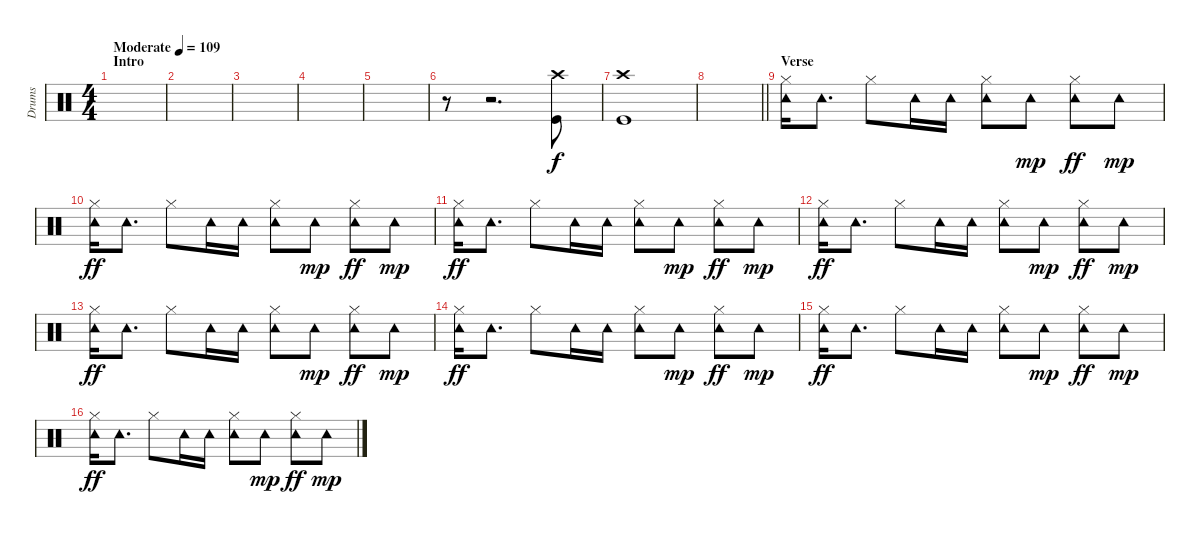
\track ("Drums" "Drums") {instrument percussion}
\staff {score}
\articulation defaults
\ts (4 4)
\section ("" "Intro")
\tempo (109 "Moderate")
\clef neutral
\ks c
|
|
|
|
|
r.8 r.2{d} ("Crash high (hit)" "Kick (hit)").8 |
("Crash high (hit)" "Kick (hit)").1 |
\barLineRight lightlight
|
\section ("" "Verse")
("Tambourine (hit)" "Hi-Hat (closed)").16 "Tambourine (hit)".8{d} "Hi-Hat (closed)".8 "Tambourine (hit)".16 "Tambourine (hit)".16 ("Tambourine (hit)" "Hi-Hat (closed)").8 "Tambourine (hit)".8{dy mp} ("Tambourine (hit)" "Hi-Hat (closed)").8{dy ff} "Tambourine (hit)".8{dy mp} |
("Tambourine (hit)" "Hi-Hat (closed)").16{dy ff} "Tambourine (hit)".8{d} "Hi-Hat (closed)".8 "Tambourine (hit)".16 "Tambourine (hit)".16 ("Tambourine (hit)" "Hi-Hat (closed)").8 "Tambourine (hit)".8{dy mp} ("Tambourine (hit)" "Hi-Hat (closed)").8{dy ff} "Tambourine (hit)".8{dy mp} |
("Tambourine (hit)" "Hi-Hat (closed)").16{dy ff} "Tambourine (hit)".8{d} "Hi-Hat (closed)".8 "Tambourine (hit)".16 "Tambourine (hit)".16 ("Tambourine (hit)" "Hi-Hat (closed)").8 "Tambourine (hit)".8{dy mp} ("Tambourine (hit)" "Hi-Hat (closed)").8{dy ff} "Tambourine (hit)".8{dy mp} |
("Tambourine (hit)" "Hi-Hat (closed)").16{dy ff} "Tambourine (hit)".8{d} "Hi-Hat (closed)".8 "Tambourine (hit)".16 "Tambourine (hit)".16 ("Tambourine (hit)" "Hi-Hat (closed)").8 "Tambourine (hit)".8{dy mp} ("Tambourine (hit)" "Hi-Hat (closed)").8{dy ff} "Tambourine (hit)".8{dy mp} |
("Tambourine (hit)" "Hi-Hat (closed)").16{dy ff} "Tambourine (hit)".8{d} "Hi-Hat (closed)".8 "Tambourine (hit)".16 "Tambourine (hit)".16 ("Tambourine (hit)" "Hi-Hat (closed)").8 "Tambourine (hit)".8{dy mp} ("Tambourine (hit)" "Hi-Hat (closed)").8{dy ff} "Tambourine (hit)".8{dy mp} |
("Tambourine (hit)" "Hi-Hat (closed)").16{dy ff} "Tambourine (hit)".8{d} "Hi-Hat (closed)".8 "Tambourine (hit)".16 "Tambourine (hit)".16 ("Tambourine (hit)" "Hi-Hat (closed)").8 "Tambourine (hit)".8{dy mp} ("Tambourine (hit)" "Hi-Hat (closed)").8{dy ff} "Tambourine (hit)".8{dy mp} |
("Tambourine (hit)" "Hi-Hat (closed)").16{dy ff} "Tambourine (hit)".8{d} "Hi-Hat (closed)".8 "Tambourine (hit)".16 "Tambourine (hit)".16 ("Tambourine (hit)" "Hi-Hat (closed)").8 "Tambourine (hit)".8{dy mp} ("Tambourine (hit)" "Hi-Hat (closed)").8{dy ff} "Tambourine (hit)".8{dy mp} |
("Tambourine (hit)" "Hi-Hat (closed)").16{dy ff} "Tambourine (hit)".8{d} "Hi-Hat (closed)".8 "Tambourine (hit)".16 "Tambourine (hit)".16 ("Tambourine (hit)" "Hi-Hat (closed)").8 "Tambourine (hit)".8{dy mp} ("Tambourine (hit)" "Hi-Hat (closed)").8{dy ff} "Tambourine (hit)".8{dy mp}
